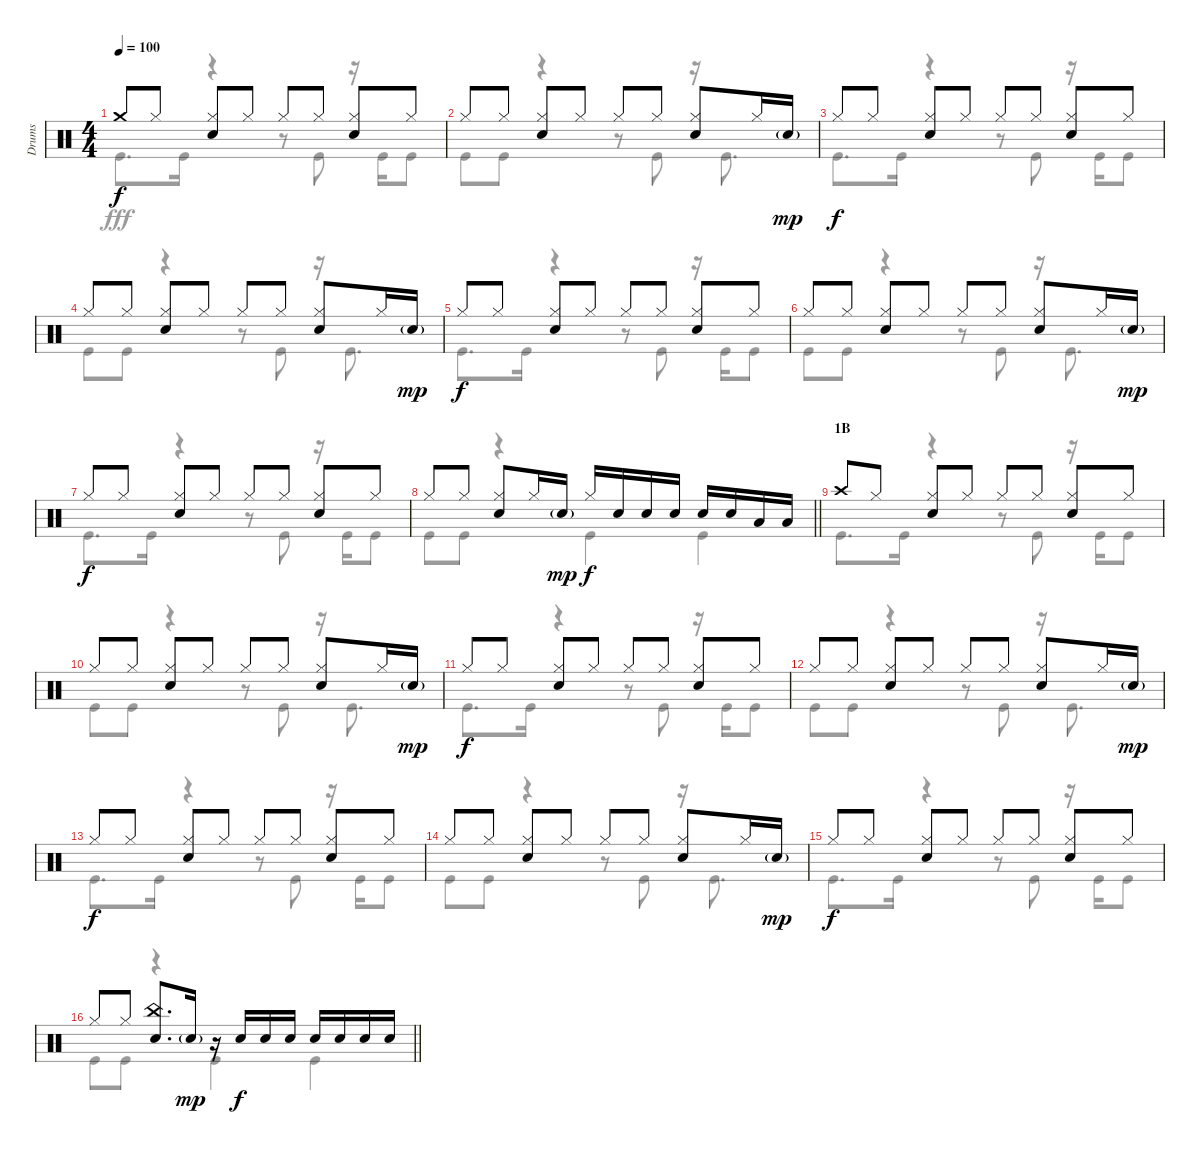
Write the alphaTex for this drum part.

\track ("Drums" "Drums") {instrument percussion}
\staff {score}
\articulation defaults
\voice
\ts (4 4)
\tempo 100
\clef neutral
\ks c "Crash medium (hit)".8{dy f} "Hi-Hat (closed)".8
("Hi-Hat (closed)" "Snare (hit) 2").8 "Hi-Hat (closed)".8 "Hi-Hat (closed)".8 "Hi-Hat (closed)".8 ("Hi-Hat (closed)" "Snare (hit) 2").8 "Hi-Hat (closed)".8 |
"Hi-Hat (closed)".8 "Hi-Hat (closed)".8 ("Hi-Hat (closed)" "Snare (hit) 2").8 "Hi-Hat (closed)".8 "Hi-Hat (closed)".8 "Hi-Hat (closed)".8 ("Hi-Hat (closed)" "Snare (hit) 2").8 "Hi-Hat (closed)".16 "Snare (hit) 2"{g}.16{dy mp} |
"Hi-Hat (closed)".8{dy f} "Hi-Hat (closed)".8 ("Hi-Hat (closed)" "Snare (hit) 2").8 "Hi-Hat (closed)".8 "Hi-Hat (closed)".8 "Hi-Hat (closed)".8 ("Hi-Hat (closed)" "Snare (hit) 2").8 "Hi-Hat (closed)".8 |
"Hi-Hat (closed)".8 "Hi-Hat (closed)".8 ("Hi-Hat (closed)" "Snare (hit) 2").8 "Hi-Hat (closed)".8 "Hi-Hat (closed)".8 "Hi-Hat (closed)".8 ("Hi-Hat (closed)" "Snare (hit) 2").8 "Hi-Hat (closed)".16 "Snare (hit) 2"{g}.16{dy mp} |
"Hi-Hat (closed)".8{dy f} "Hi-Hat (closed)".8 ("Hi-Hat (closed)" "Snare (hit) 2").8 "Hi-Hat (closed)".8 "Hi-Hat (closed)".8 "Hi-Hat (closed)".8 ("Hi-Hat (closed)" "Snare (hit) 2").8 "Hi-Hat (closed)".8 |
"Hi-Hat (closed)".8 "Hi-Hat (closed)".8 ("Hi-Hat (closed)" "Snare (hit) 2").8 "Hi-Hat (closed)".8 "Hi-Hat (closed)".8 "Hi-Hat (closed)".8 ("Hi-Hat (closed)" "Snare (hit) 2").8 "Hi-Hat (closed)".16 "Snare (hit) 2"{g}.16{dy mp} |
"Hi-Hat (closed)".8{dy f} "Hi-Hat (closed)".8 ("Hi-Hat (closed)" "Snare (hit) 2").8 "Hi-Hat (closed)".8 "Hi-Hat (closed)".8 "Hi-Hat (closed)".8 ("Hi-Hat (closed)" "Snare (hit) 2").8 "Hi-Hat (closed)".8 |
\barLineRight lightlight "Hi-Hat (closed)".8 "Hi-Hat (closed)".8
("Hi-Hat (closed)" "Snare (hit) 2").8 "Hi-Hat (closed)".16 "Snare (hit) 2"{g}.16{dy mp} "Hi-Hat (closed)".16{dy f} "Snare (hit) 2".16 "Snare (hit) 2".16 "Snare (hit) 2".16 "Snare (hit) 2".16 "Snare (hit) 2".16 "Low Tom (hit)".16 "Low Tom (hit)".16 |
\section ("" "1B")
"Crash high (hit)".8 "Hi-Hat (closed)".8 ("Hi-Hat (closed)" "Snare (hit) 2").8 "Hi-Hat (closed)".8 "Hi-Hat (closed)".8 "Hi-Hat (closed)".8 ("Hi-Hat (closed)" "Snare (hit) 2").8 "Hi-Hat (closed)".8 |
"Hi-Hat (closed)".8 "Hi-Hat (closed)".8 ("Hi-Hat (closed)" "Snare (hit) 2").8 "Hi-Hat (closed)".8 "Hi-Hat (closed)".8 "Hi-Hat (closed)".8 ("Hi-Hat (closed)" "Snare (hit) 2").8 "Hi-Hat (closed)".16 "Snare (hit) 2"{g}.16{dy mp} |
"Hi-Hat (closed)".8{dy f} "Hi-Hat (closed)".8 ("Hi-Hat (closed)" "Snare (hit) 2").8 "Hi-Hat (closed)".8 "Hi-Hat (closed)".8 "Hi-Hat (closed)".8 ("Hi-Hat (closed)" "Snare (hit) 2").8 "Hi-Hat (closed)".8 |
"Hi-Hat (closed)".8 "Hi-Hat (closed)".8 ("Hi-Hat (closed)" "Snare (hit) 2").8 "Hi-Hat (closed)".8 "Hi-Hat (closed)".8 "Hi-Hat (closed)".8 ("Hi-Hat (closed)" "Snare (hit) 2").8 "Hi-Hat (closed)".16 "Snare (hit) 2"{g}.16{dy mp} |
"Hi-Hat (closed)".8{dy f} "Hi-Hat (closed)".8 ("Hi-Hat (closed)" "Snare (hit) 2").8 "Hi-Hat (closed)".8 "Hi-Hat (closed)".8 "Hi-Hat (closed)".8 ("Hi-Hat (closed)" "Snare (hit) 2").8 "Hi-Hat (closed)".8 |
"Hi-Hat (closed)".8 "Hi-Hat (closed)".8 ("Hi-Hat (closed)" "Snare (hit) 2").8 "Hi-Hat (closed)".8 "Hi-Hat (closed)".8 "Hi-Hat (closed)".8 ("Hi-Hat (closed)" "Snare (hit) 2").8 "Hi-Hat (closed)".16 "Snare (hit) 2"{g}.16{dy mp} |
"Hi-Hat (closed)".8{dy f} "Hi-Hat (closed)".8 ("Hi-Hat (closed)" "Snare (hit) 2").8 "Hi-Hat (closed)".8 "Hi-Hat (closed)".8 "Hi-Hat (closed)".8 ("Hi-Hat (closed)" "Snare (hit) 2").8 "Hi-Hat (closed)".8 |
\barLineRight lightlight "Hi-Hat (closed)".8 "Hi-Hat (closed)".8
("China (hit)" "Snare (hit) 2").8{d} "Snare (hit) 2"{g}.16{dy mp} r.16 "Snare (hit) 2".16{dy f} "Snare (hit) 2".16 "Snare (hit) 2".16 "Snare (hit) 2".16 "Snare (hit) 2".16 "Snare (hit) 2".16 "Snare (hit) 2".16
\voice
\clef neutral
\ottava regular
\simile none
\ks c "Kick (hit)".8{d dy fff} "Kick (hit)".16
r.4 r.8 "Kick (hit)".8 r.16 "Kick (hit)".16 "Kick (hit)".8 |
"Kick (hit)".8 "Kick (hit)".8 r.4 r.8 "Kick (hit)".8 r.16 "Kick (hit)".8{d} |
"Kick (hit)".8{d} "Kick (hit)".16 r.4 r.8 "Kick (hit)".8 r.16 "Kick (hit)".16 "Kick (hit)".8 |
"Kick (hit)".8 "Kick (hit)".8 r.4 r.8 "Kick (hit)".8 r.16 "Kick (hit)".8{d} |
"Kick (hit)".8{d} "Kick (hit)".16 r.4 r.8 "Kick (hit)".8 r.16 "Kick (hit)".16 "Kick (hit)".8 |
"Kick (hit)".8 "Kick (hit)".8 r.4 r.8 "Kick (hit)".8 r.16 "Kick (hit)".8{d} |
"Kick (hit)".8{d} "Kick (hit)".16 r.4 r.8 "Kick (hit)".8 r.16 "Kick (hit)".16 "Kick (hit)".8 |
\barLineRight lightlight "Kick (hit)".8 "Kick (hit)".8
r.4 "Kick (hit)".4 "Kick (hit)".4 |
"Kick (hit)".8{d} "Kick (hit)".16 r.4 r.8 "Kick (hit)".8 r.16 "Kick (hit)".16 "Kick (hit)".8 |
"Kick (hit)".8 "Kick (hit)".8 r.4 r.8 "Kick (hit)".8 r.16 "Kick (hit)".8{d} |
"Kick (hit)".8{d} "Kick (hit)".16 r.4 r.8 "Kick (hit)".8 r.16 "Kick (hit)".16 "Kick (hit)".8 |
"Kick (hit)".8 "Kick (hit)".8 r.4 r.8 "Kick (hit)".8 r.16 "Kick (hit)".8{d} |
"Kick (hit)".8{d} "Kick (hit)".16 r.4 r.8 "Kick (hit)".8 r.16 "Kick (hit)".16 "Kick (hit)".8 |
"Kick (hit)".8 "Kick (hit)".8 r.4 r.8 "Kick (hit)".8 r.16 "Kick (hit)".8{d} |
"Kick (hit)".8{d} "Kick (hit)".16 r.4 r.8 "Kick (hit)".8 r.16 "Kick (hit)".16 "Kick (hit)".8 |
\barLineRight lightlight "Kick (hit)".8 "Kick (hit)".8
r.4 "Kick (hit)".4 "Kick (hit)".4
